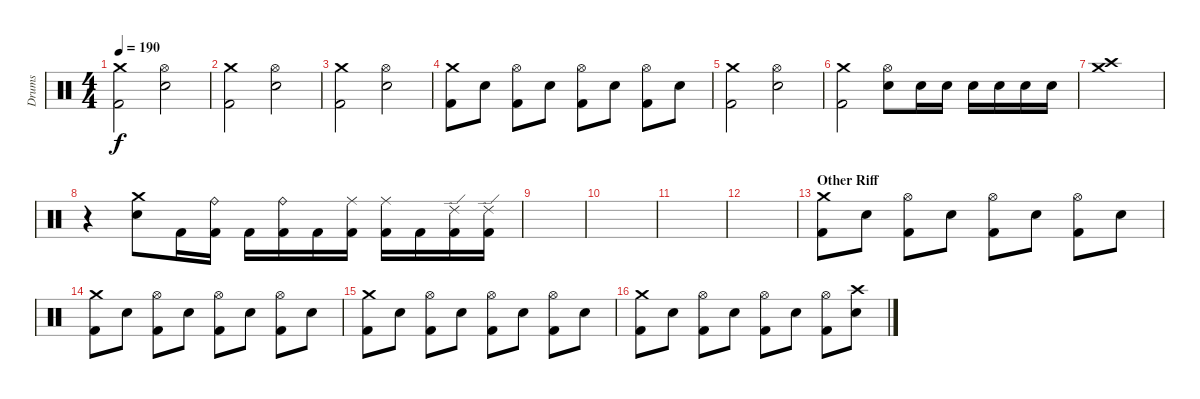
\track ("Drums" "Drums") {instrument percussion}
\staff {score}
\articulation defaults
\ts (4 4)
\tempo 190
\clef neutral
\ks c
("Crash medium (hit)" "Kick (hit) 2").2{dy f} ("Hi-Hat (open)" "Snare (hit) 2").2 |
("Crash medium (hit)" "Kick (hit) 2").2 ("Hi-Hat (open)" "Snare (hit) 2").2 |
("Crash medium (hit)" "Kick (hit) 2").2 ("Hi-Hat (open)" "Snare (hit) 2").2 |
("Crash medium (hit)" "Kick (hit) 2").8 "Snare (hit) 2".8 ("Hi-Hat (open)" "Kick (hit) 2").8 "Snare (hit) 2".8 ("Hi-Hat (open)" "Kick (hit) 2").8 "Snare (hit) 2".8 ("Hi-Hat (open)" "Kick (hit) 2").8 "Snare (hit) 2".8 |
("Crash medium (hit)" "Kick (hit) 2").2 ("Hi-Hat (open)" "Snare (hit) 2").2 |
("Crash medium (hit)" "Kick (hit) 2").2 ("Hi-Hat (open)" "Snare (hit) 2").8 "Snare (hit) 2".16 "Snare (hit) 2".16 "Snare (hit) 2".16 "Snare (hit) 2".16 "Snare (hit) 2".16 "Snare (hit) 2".16 |
("Crash medium (hit)" "Crash high (hit)").1 |
r.4 ("Crash medium (hit)" "Snare (hit) 2").8 "Kick (hit) 2".16 ("Ride (bell)" "Kick (hit) 2").16 "Kick (hit) 2".16 ("Ride (bell)" "Kick (hit) 2").16 "Kick (hit) 2".16 ("Ride (middle)" "Kick (hit) 2").16 ("Ride (middle)" "Kick (hit) 2").16 "Kick (hit) 2".16 ("Ride (edge) 2" "Kick (hit) 2").16 ("Ride (edge) 2" "Kick (hit) 2").16 |
|
|
|
|
\section ("" "Other Riff")
("Crash medium (hit)" "Kick (hit) 2").8 "Snare (hit) 2".8 ("Hi-Hat (open)" "Kick (hit) 2").8 "Snare (hit) 2".8 ("Hi-Hat (open)" "Kick (hit) 2").8 "Snare (hit) 2".8 ("Hi-Hat (open)" "Kick (hit) 2").8 "Snare (hit) 2".8 |
("Crash medium (hit)" "Kick (hit) 2").8 "Snare (hit) 2".8 ("Hi-Hat (open)" "Kick (hit) 2").8 "Snare (hit) 2".8 ("Hi-Hat (open)" "Kick (hit) 2").8 "Snare (hit) 2".8 ("Hi-Hat (open)" "Kick (hit) 2").8 "Snare (hit) 2".8 |
("Crash medium (hit)" "Kick (hit) 2").8 "Snare (hit) 2".8 ("Hi-Hat (open)" "Kick (hit) 2").8 "Snare (hit) 2".8 ("Hi-Hat (open)" "Kick (hit) 2").8 "Snare (hit) 2".8 ("Hi-Hat (open)" "Kick (hit) 2").8 "Snare (hit) 2".8 |
("Crash medium (hit)" "Kick (hit) 2").8 "Snare (hit) 2".8 ("Hi-Hat (open)" "Kick (hit) 2").8 "Snare (hit) 2".8 ("Hi-Hat (open)" "Kick (hit) 2").8 "Snare (hit) 2".8 ("Hi-Hat (open)" "Kick (hit) 2").8 ("Crash high (hit)" "Snare (hit) 2").8
